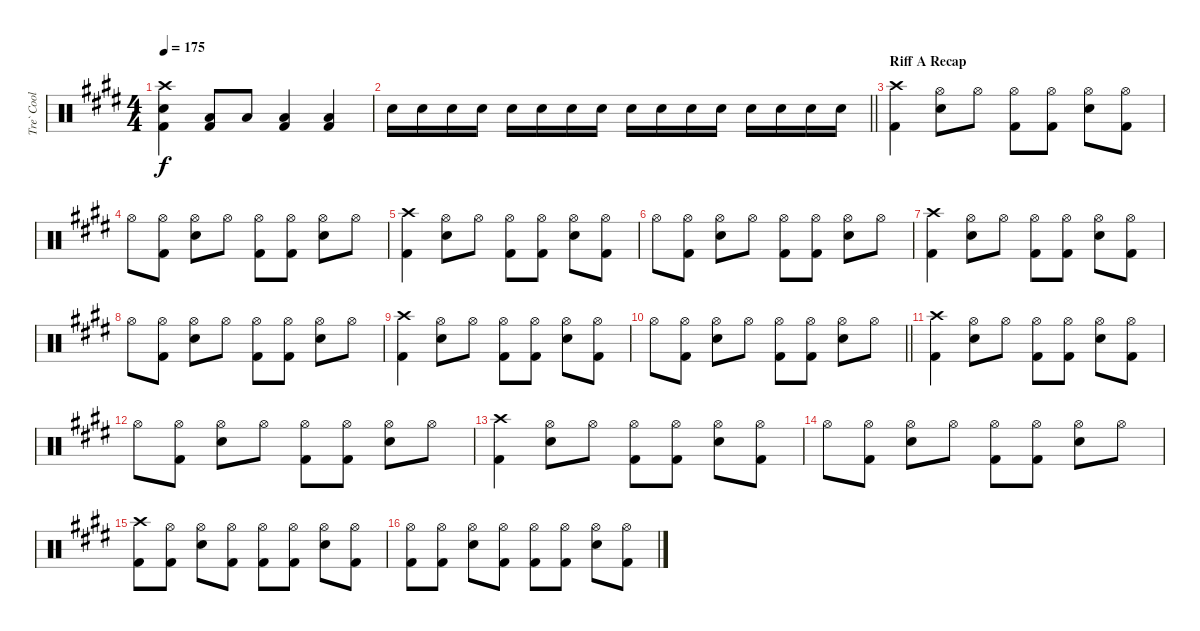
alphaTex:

\track ("Tre` Cool" "Tre` Cool") {instrument percussion}
\staff {score}
\articulation defaults
\ts (4 4)
\tempo 175
\clef neutral
\ks e
("Crash high (hit)" "Snare (hit) 2" "Kick (hit) 2").4{dy f} ("Low Floor Tom (hit)" "Kick (hit) 2").8 "Low Tom (hit)".8 ("Low Floor Tom (hit)" "Kick (hit) 2").4 ("Low Tom (hit)" "Kick (hit) 2").4 |
\barLineRight lightlight "Snare (hit) 2".16 "Snare (hit) 2".16 "Snare (hit) 2".16 "Snare (hit) 2".16 "Snare (hit) 2".16 "Snare (hit) 2".16 "Snare (hit) 2".16 "Snare (hit) 2".16 "Snare (hit) 2".16 "Snare (hit) 2".16 "Snare (hit) 2".16 "Snare (hit) 2".16 "Snare (hit) 2".16 "Snare (hit) 2".16 "Snare (hit) 2".16 "Snare (hit) 2".16
|
\section ("" "Riff A Recap")
("Crash high (hit)" "Kick (hit) 2").4 ("Hi-Hat (open)" "Snare (hit) 2").8 "Hi-Hat (open)".8 ("Hi-Hat (open)" "Kick (hit) 2").8 ("Hi-Hat (open)" "Kick (hit) 2").8 ("Hi-Hat (open)" "Snare (hit) 2").8 ("Hi-Hat (open)" "Kick (hit) 2").8 |
"Hi-Hat (open)".8 ("Hi-Hat (open)" "Kick (hit) 2").8 ("Hi-Hat (open)" "Snare (hit) 2").8 "Hi-Hat (open)".8 ("Hi-Hat (open)" "Kick (hit) 2").8 ("Hi-Hat (open)" "Kick (hit) 2").8 ("Hi-Hat (open)" "Snare (hit) 2").8 "Hi-Hat (open)".8 |
("Crash high (hit)" "Kick (hit) 2").4 ("Hi-Hat (open)" "Snare (hit) 2").8 "Hi-Hat (open)".8 ("Hi-Hat (open)" "Kick (hit) 2").8 ("Hi-Hat (open)" "Kick (hit) 2").8 ("Hi-Hat (open)" "Snare (hit) 2").8 ("Hi-Hat (open)" "Kick (hit) 2").8 |
"Hi-Hat (open)".8 ("Hi-Hat (open)" "Kick (hit) 2").8 ("Hi-Hat (open)" "Snare (hit) 2").8 "Hi-Hat (open)".8 ("Hi-Hat (open)" "Kick (hit) 2").8 ("Hi-Hat (open)" "Kick (hit) 2").8 ("Hi-Hat (open)" "Snare (hit) 2").8 "Hi-Hat (open)".8 |
("Crash high (hit)" "Kick (hit) 2").4 ("Hi-Hat (open)" "Snare (hit) 2").8 "Hi-Hat (open)".8 ("Hi-Hat (open)" "Kick (hit) 2").8 ("Hi-Hat (open)" "Kick (hit) 2").8 ("Hi-Hat (open)" "Snare (hit) 2").8 ("Hi-Hat (open)" "Kick (hit) 2").8 |
"Hi-Hat (open)".8 ("Hi-Hat (open)" "Kick (hit) 2").8 ("Hi-Hat (open)" "Snare (hit) 2").8 "Hi-Hat (open)".8 ("Hi-Hat (open)" "Kick (hit) 2").8 ("Hi-Hat (open)" "Kick (hit) 2").8 ("Hi-Hat (open)" "Snare (hit) 2").8 "Hi-Hat (open)".8 |
("Crash high (hit)" "Kick (hit) 2").4 ("Hi-Hat (open)" "Snare (hit) 2").8 "Hi-Hat (open)".8 ("Hi-Hat (open)" "Kick (hit) 2").8 ("Hi-Hat (open)" "Kick (hit) 2").8 ("Hi-Hat (open)" "Snare (hit) 2").8 ("Hi-Hat (open)" "Kick (hit) 2").8 |
\barLineRight lightlight "Hi-Hat (open)".8
("Hi-Hat (open)" "Kick (hit) 2").8 ("Hi-Hat (open)" "Snare (hit) 2").8 "Hi-Hat (open)".8 ("Hi-Hat (open)" "Kick (hit) 2").8 ("Hi-Hat (open)" "Kick (hit) 2").8 ("Hi-Hat (open)" "Snare (hit) 2").8 "Hi-Hat (open)".8 |
("Crash high (hit)" "Kick (hit) 2").4 ("Hi-Hat (open)" "Snare (hit) 2").8 "Hi-Hat (open)".8 ("Hi-Hat (open)" "Kick (hit) 2").8 ("Hi-Hat (open)" "Kick (hit) 2").8 ("Hi-Hat (open)" "Snare (hit) 2").8 ("Hi-Hat (open)" "Kick (hit) 2").8 |
"Hi-Hat (open)".8 ("Hi-Hat (open)" "Kick (hit) 2").8 ("Hi-Hat (open)" "Snare (hit) 2").8 "Hi-Hat (open)".8 ("Hi-Hat (open)" "Kick (hit) 2").8 ("Hi-Hat (open)" "Kick (hit) 2").8 ("Hi-Hat (open)" "Snare (hit) 2").8 "Hi-Hat (open)".8 |
("Crash high (hit)" "Kick (hit) 2").4 ("Hi-Hat (open)" "Snare (hit) 2").8 "Hi-Hat (open)".8 ("Hi-Hat (open)" "Kick (hit) 2").8 ("Hi-Hat (open)" "Kick (hit) 2").8 ("Hi-Hat (open)" "Snare (hit) 2").8 ("Hi-Hat (open)" "Kick (hit) 2").8 |
"Hi-Hat (open)".8 ("Hi-Hat (open)" "Kick (hit) 2").8 ("Hi-Hat (open)" "Snare (hit) 2").8 "Hi-Hat (open)".8 ("Hi-Hat (open)" "Kick (hit) 2").8 ("Hi-Hat (open)" "Kick (hit) 2").8 ("Hi-Hat (open)" "Snare (hit) 2").8 "Hi-Hat (open)".8 |
("Crash high (hit)" "Kick (hit) 2").8 ("Hi-Hat (open)" "Kick (hit) 2").8 ("Hi-Hat (open)" "Snare (hit) 2").8 ("Hi-Hat (open)" "Kick (hit) 2").8 ("Hi-Hat (open)" "Kick (hit) 2").8 ("Hi-Hat (open)" "Kick (hit) 2").8 ("Hi-Hat (open)" "Snare (hit) 2").8 ("Hi-Hat (open)" "Kick (hit) 2").8 |
("Hi-Hat (open)" "Kick (hit) 2").8 ("Hi-Hat (open)" "Kick (hit) 2").8 ("Hi-Hat (open)" "Snare (hit) 2").8 ("Hi-Hat (open)" "Kick (hit) 2").8 ("Hi-Hat (open)" "Kick (hit) 2").8 ("Hi-Hat (open)" "Kick (hit) 2").8 ("Hi-Hat (open)" "Snare (hit) 2").8 ("Hi-Hat (open)" "Kick (hit) 2").8
